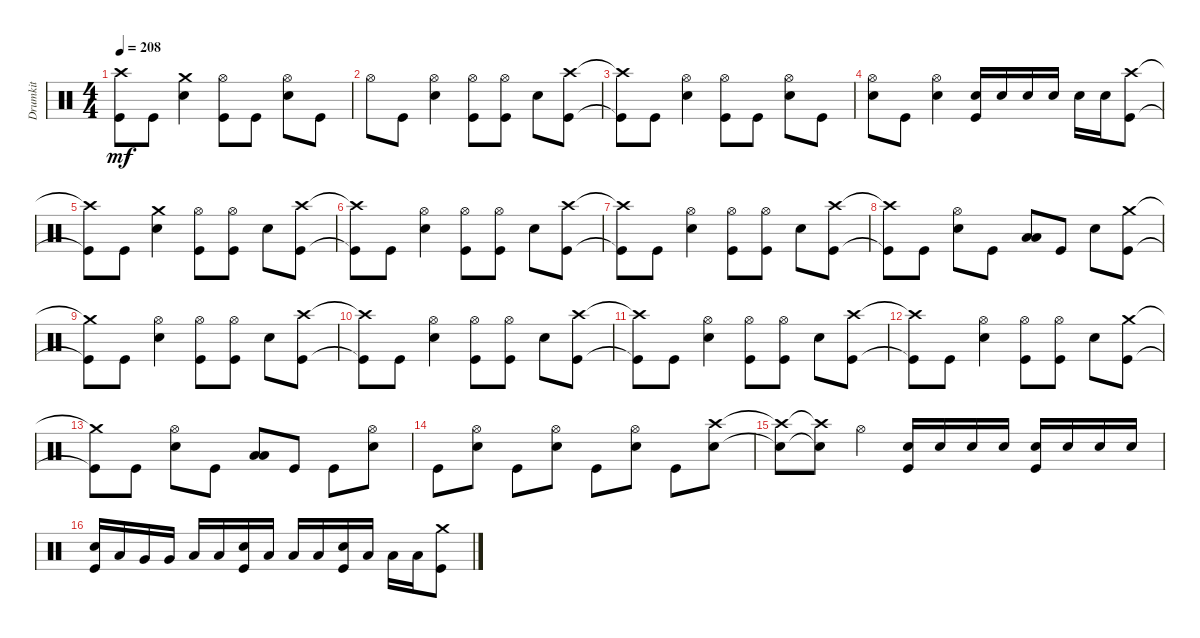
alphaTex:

\track ("Drumkit" "Drumkit") {instrument percussion}
\staff {score}
\articulation defaults
\ts (4 4)
\tempo 208
\clef neutral
\ks c
("Kick (hit)"{t} "Crash high (hit)"{t}).8{dy mf} "Kick (hit)".8 ("Snare (hit) 2" "Crash medium (hit)").4 ("Kick (hit)" "Hi-Hat (open)").8 "Kick (hit)".8 ("Snare (hit) 2" "Hi-Hat (open)").8 "Kick (hit)".8 |
"Hi-Hat (open)".8 "Kick (hit)".8 ("Snare (hit) 2" "Hi-Hat (open)").4 ("Kick (hit)" "Hi-Hat (open)").8 ("Kick (hit)" "Hi-Hat (open)").8 "Snare (hit) 2".8 ("Kick (hit)" "Crash high (hit)").8 |
("Kick (hit)"{t} "Crash high (hit)"{t}).8 "Kick (hit)".8 ("Snare (hit) 2" "Hi-Hat (open)").4 ("Kick (hit)" "Hi-Hat (open)").8 "Kick (hit)".8 ("Snare (hit) 2" "Hi-Hat (open)").8 "Kick (hit)".8 |
("Snare (hit) 2" "Hi-Hat (open)").8 "Kick (hit)".8 ("Snare (hit) 2" "Hi-Hat (open)").4 ("Kick (hit)" "Snare (hit) 2").16 "Snare (hit) 2".16 "Snare (hit) 2".16 "Snare (hit) 2".16 "Snare (hit) 2".16 "Snare (hit) 2".16 ("Kick (hit)" "Crash high (hit)").8 |
("Kick (hit)"{t} "Crash high (hit)"{t}).8 "Kick (hit)".8 ("Snare (hit) 2" "Crash medium (hit)").4 ("Kick (hit)" "Hi-Hat (open)").8 ("Kick (hit)" "Hi-Hat (open)").8 "Snare (hit) 2".8 ("Kick (hit)" "Crash high (hit)").8 |
("Kick (hit)"{t} "Crash high (hit)"{t}).8 "Kick (hit)".8 ("Snare (hit) 2" "Hi-Hat (open)").4 ("Kick (hit)" "Hi-Hat (open)").8 ("Kick (hit)" "Hi-Hat (open)").8 "Snare (hit) 2".8 ("Kick (hit)" "Crash high (hit)").8 |
("Kick (hit)"{t} "Crash high (hit)"{t}).8 "Kick (hit)".8 ("Snare (hit) 2" "Hi-Hat (open)").4 ("Kick (hit)" "Hi-Hat (open)").8 ("Kick (hit)" "Hi-Hat (open)").8 "Snare (hit) 2".8 ("Kick (hit)" "Crash high (hit)").8 |
("Kick (hit)"{t} "Crash high (hit)"{t}).8 "Kick (hit)".8 ("Snare (hit) 2" "Hi-Hat (open)").8 "Kick (hit)".8 ("Low Tom (hit)" "Low Floor Tom (hit)").8 "Kick (hit)".8 "Snare (hit) 2".8 ("Kick (hit)" "Crash medium (hit)").8 |
("Kick (hit)"{t} "Crash medium (hit)"{t}).8 "Kick (hit)".8 ("Snare (hit) 2" "Hi-Hat (open)").4 ("Kick (hit)" "Hi-Hat (open)").8 ("Kick (hit)" "Hi-Hat (open)").8 "Snare (hit) 2".8 ("Kick (hit)" "Crash high (hit)").8 |
("Kick (hit)"{t} "Crash high (hit)"{t}).8 "Kick (hit)".8 ("Snare (hit) 2" "Hi-Hat (open)").4 ("Kick (hit)" "Hi-Hat (open)").8 ("Kick (hit)" "Hi-Hat (open)").8 "Snare (hit) 2".8 ("Kick (hit)" "Crash high (hit)").8 |
("Kick (hit)"{t} "Crash high (hit)"{t}).8 "Kick (hit)".8 ("Snare (hit) 2" "Hi-Hat (open)").4 ("Kick (hit)" "Hi-Hat (open)").8 ("Kick (hit)" "Hi-Hat (open)").8 "Snare (hit) 2".8 ("Kick (hit)" "Crash high (hit)").8 |
("Kick (hit)"{t} "Crash high (hit)"{t}).8 "Kick (hit)".8 ("Snare (hit) 2" "Hi-Hat (open)").4 ("Kick (hit)" "Hi-Hat (open)").8 ("Kick (hit)" "Hi-Hat (open)").8 "Snare (hit) 2".8 ("Kick (hit)" "Crash medium (hit)").8 |
("Kick (hit)"{t} "Crash medium (hit)"{t}).8 "Kick (hit)".8 ("Snare (hit) 2" "Hi-Hat (open)").8 "Kick (hit)".8 ("Low Tom (hit)" "Low Floor Tom (hit)").8 "Kick (hit)".8 "Kick (hit)".8 ("Snare (hit) 2" "Hi-Hat (open)").8 |
"Kick (hit)".8 ("Snare (hit) 2" "Hi-Hat (open)").8 "Kick (hit)".8 ("Snare (hit) 2" "Hi-Hat (open)").8 "Kick (hit)".8 ("Snare (hit) 2" "Hi-Hat (open)").8 "Kick (hit)".8 ("Snare (hit) 2" "Crash high (hit)").8 |
("Snare (hit) 2"{t} "Crash high (hit)"{t}).8 ("Snare (hit) 2"{t} "Crash high (hit)"{t}).8 "Hi-Hat (open)".4 ("Kick (hit)" "Snare (hit) 2").16 "Snare (hit) 2".16 "Snare (hit) 2".16 "Snare (hit) 2".16 ("Kick (hit)" "Snare (hit) 2").16 "Snare (hit) 2".16 "Snare (hit) 2".16 "Snare (hit) 2".16 |
("Snare (hit) 2" "Kick (hit)").16 "Low Tom (hit)".16 "Very Low Tom (hit)".16 "Very Low Tom (hit)".16 "Low Floor Tom (hit)".16 "Low Floor Tom (hit)".16 ("Kick (hit)" "Snare (hit) 2").16 "Low Floor Tom (hit)".16 "Low Floor Tom (hit)".16 "Low Floor Tom (hit)".16 ("Kick (hit)" "Snare (hit) 2").16 "Low Floor Tom (hit)".16 "Low Floor Tom (hit)".16 "Low Floor Tom (hit)".16 ("Kick (hit)" "Crash medium (hit)").8
